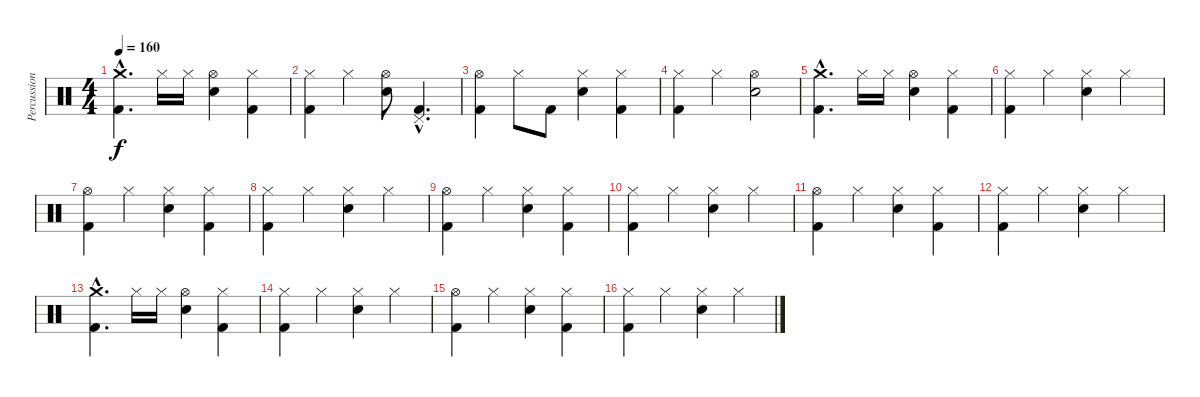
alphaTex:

\track ("Percussion" "Percussion") {instrument percussion}
\staff {score}
\articulation defaults
\ts (4 4)
\tempo 160
\clef neutral
\ks c
("Crash medium (hit)"{hac} "Kick (hit) 2"{hac}).4{d dy f} "Hi-Hat (closed)".16 "Hi-Hat (closed)".16 ("Hi-Hat (open)" "Electric Snare (hit)").4 ("Hi-Hat (closed)" "Kick (hit) 2").4 |
("Hi-Hat (closed)" "Kick (hit) 2").4 "Hi-Hat (closed)".4 ("Hi-Hat (open)" "Electric Snare (hit)").8 ("Pedal Hi-Hat (hit)"{hac} "Kick (hit) 2"{hac}).4{d} |
("Hi-Hat (open)" "Kick (hit) 2").4 "Hi-Hat (closed)".8 "Kick (hit) 2".8 ("Hi-Hat (closed)" "Electric Snare (hit)").4 ("Hi-Hat (closed)" "Kick (hit) 2").4 |
("Hi-Hat (closed)" "Kick (hit) 2").4 "Hi-Hat (closed)".4 ("Hi-Hat (open)" "Electric Snare (hit)").2 |
("Crash medium (hit)"{hac} "Kick (hit) 2"{hac}).4{d} "Hi-Hat (closed)".16 "Hi-Hat (closed)".16 ("Hi-Hat (open)" "Electric Snare (hit)").4 ("Hi-Hat (closed)" "Kick (hit) 2").4 |
("Hi-Hat (closed)" "Kick (hit) 2").4 "Hi-Hat (closed)".4 ("Hi-Hat (closed)" "Electric Snare (hit)").4 "Hi-Hat (closed)".4 |
("Hi-Hat (open)" "Kick (hit) 2").4 "Hi-Hat (closed)".4 ("Hi-Hat (closed)" "Electric Snare (hit)").4 ("Hi-Hat (closed)" "Kick (hit) 2").4 |
("Hi-Hat (closed)" "Kick (hit) 2").4 "Hi-Hat (closed)".4 ("Hi-Hat (closed)" "Electric Snare (hit)").4 "Hi-Hat (closed)".4 |
("Hi-Hat (open)" "Kick (hit) 2").4 "Hi-Hat (closed)".4 ("Hi-Hat (closed)" "Electric Snare (hit)").4 ("Hi-Hat (closed)" "Kick (hit) 2").4 |
("Hi-Hat (closed)" "Kick (hit) 2").4 "Hi-Hat (closed)".4 ("Hi-Hat (closed)" "Electric Snare (hit)").4 "Hi-Hat (closed)".4 |
("Hi-Hat (open)" "Kick (hit) 2").4 "Hi-Hat (closed)".4 ("Hi-Hat (closed)" "Electric Snare (hit)").4 ("Hi-Hat (closed)" "Kick (hit) 2").4 |
("Hi-Hat (closed)" "Kick (hit) 2").4 "Hi-Hat (closed)".4 ("Hi-Hat (closed)" "Electric Snare (hit)").4 "Hi-Hat (closed)".4 |
("Crash medium (hit)"{hac} "Kick (hit) 2"{hac}).4{d} "Hi-Hat (closed)".16 "Hi-Hat (closed)".16 ("Hi-Hat (open)" "Electric Snare (hit)").4 ("Hi-Hat (closed)" "Kick (hit) 2").4 |
("Hi-Hat (closed)" "Kick (hit) 2").4 "Hi-Hat (closed)".4 ("Hi-Hat (closed)" "Electric Snare (hit)").4 "Hi-Hat (closed)".4 |
("Hi-Hat (open)" "Kick (hit) 2").4 "Hi-Hat (closed)".4 ("Hi-Hat (closed)" "Electric Snare (hit)").4 ("Hi-Hat (closed)" "Kick (hit) 2").4 |
("Hi-Hat (closed)" "Kick (hit) 2").4 "Hi-Hat (closed)".4 ("Hi-Hat (closed)" "Electric Snare (hit)").4 "Hi-Hat (closed)".4
